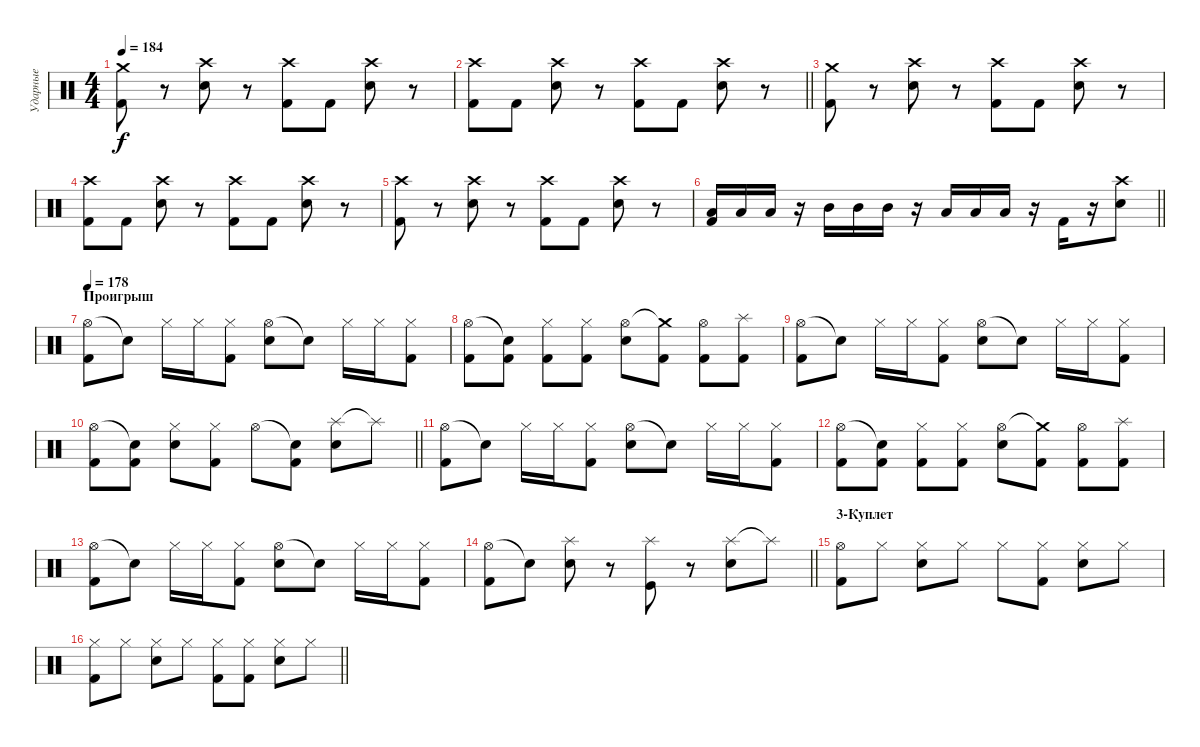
\track ("Ударные" "Ударные") {instrument percussion}
\staff {score}
\articulation defaults
\ts (4 4)
\tempo 184
\clef neutral
\ks c
("Crash medium (hit)" "Kick (hit) 2").8{dy f} r.8 ("Crash high (hit)" "Snare (hit) 2").8 r.8 ("Crash high (hit)" "Kick (hit) 2").8 "Kick (hit) 2".8 ("Crash high (hit)" "Snare (hit) 2").8 r.8 |
\barLineRight lightlight
("Crash high (hit)" "Kick (hit) 2").8 "Kick (hit) 2".8 ("Crash high (hit)" "Snare (hit) 2").8 r.8 ("Crash high (hit)" "Kick (hit) 2").8 "Kick (hit) 2".8 ("Crash high (hit)" "Snare (hit) 2").8 r.8 |
("Crash medium (hit)" "Kick (hit) 2").8 r.8 ("Crash high (hit)" "Snare (hit) 2").8 r.8 ("Crash high (hit)" "Kick (hit) 2").8 "Kick (hit) 2".8 ("Crash high (hit)" "Snare (hit) 2").8 r.8 |
("Crash high (hit)" "Kick (hit) 2").8 "Kick (hit) 2".8 ("Crash high (hit)" "Snare (hit) 2").8 r.8 ("Crash high (hit)" "Kick (hit) 2").8 "Kick (hit) 2".8 ("Crash high (hit)" "Snare (hit) 2").8 r.8 |
("Crash high (hit)" "Kick (hit) 2").8 r.8 ("Crash high (hit)" "Snare (hit) 2").8 r.8 ("Crash high (hit)" "Kick (hit) 2").8 "Kick (hit) 2".8 ("Crash high (hit)" "Snare (hit) 2").8 r.8 |
\barLineRight lightlight
("Low Floor Tom (hit)" "Kick (hit) 2").16 "Low Floor Tom (hit)".16 "Low Floor Tom (hit)".16 r.16 "Mid Tom (hit)".16 "Mid Tom (hit)".16 "Mid Tom (hit)".16 r.16 "Low Tom (hit)".16 "Low Tom (hit)".16 "Low Tom (hit)".16 r.16 "Kick (hit) 2".16 r.16 ("Crash high (hit)" "Snare (hit) 2").8 |
\section ("" "Проигрыш")
\tempo 178
("Hi-Hat (open)" "Kick (hit) 2").8 "Snare (hit)"{t}.8 "Hi-Hat (closed)".16 "Hi-Hat (closed)".16 ("Hi-Hat (closed)" "Kick (hit) 2").8 ("Hi-Hat (open)" "Snare (hit) 2").8 "Snare (hit)"{t}.8 "Hi-Hat (closed)".16 "Hi-Hat (closed)".16 ("Hi-Hat (closed)" "Kick (hit) 2").8 |
("Hi-Hat (open)" "Kick (hit) 2").8 ("Snare (hit)"{t} "Kick (hit) 2").8 ("Hi-Hat (closed)" "Kick (hit) 2").8 ("Hi-Hat (closed)" "Kick (hit) 2").8 ("Hi-Hat (open)" "Snare (hit) 2").8 ("Crash medium (hit)"{t} "Kick (hit) 2").8 ("Hi-Hat (open)" "Kick (hit) 2").8 ("Splash (hit)" "Kick (hit) 2").8 |
("Hi-Hat (open)" "Kick (hit) 2").8 "Snare (hit)"{t}.8 "Hi-Hat (closed)".16 "Hi-Hat (closed)".16 ("Hi-Hat (closed)" "Kick (hit) 2").8 ("Hi-Hat (open)" "Snare (hit) 2").8 "Snare (hit)"{t}.8 "Hi-Hat (closed)".16 "Hi-Hat (closed)".16 ("Hi-Hat (closed)" "Kick (hit) 2").8 |
\barLineRight lightlight
("Hi-Hat (open)" "Kick (hit) 2").8 ("Snare (hit)"{t} "Kick (hit) 2").8 ("Hi-Hat (closed)" "Snare (hit) 2").8 ("Hi-Hat (closed)" "Kick (hit) 2").8 "Hi-Hat (open)".8 ("Snare (hit)"{t} "Kick (hit) 2").8 ("Splash (hit)" "Snare (hit) 2").8 "Splash (hit)"{t}.8 |
("Hi-Hat (open)" "Kick (hit) 2").8 "Snare (hit)"{t}.8 "Hi-Hat (closed)".16 "Hi-Hat (closed)".16 ("Hi-Hat (closed)" "Kick (hit) 2").8 ("Hi-Hat (open)" "Snare (hit) 2").8 "Snare (hit)"{t}.8 "Hi-Hat (closed)".16 "Hi-Hat (closed)".16 ("Hi-Hat (closed)" "Kick (hit) 2").8 |
("Hi-Hat (open)" "Kick (hit) 2").8 ("Snare (hit)"{t} "Kick (hit) 2").8 ("Hi-Hat (closed)" "Kick (hit) 2").8 ("Hi-Hat (closed)" "Kick (hit) 2").8 ("Hi-Hat (open)" "Snare (hit) 2").8 ("Crash medium (hit)"{t} "Kick (hit) 2").8 ("Hi-Hat (open)" "Kick (hit) 2").8 ("Splash (hit)" "Kick (hit) 2").8 |
("Hi-Hat (open)" "Kick (hit) 2").8 "Snare (hit)"{t}.8 "Hi-Hat (closed)".16 "Hi-Hat (closed)".16 ("Hi-Hat (closed)" "Kick (hit) 2").8 ("Hi-Hat (open)" "Snare (hit) 2").8 "Snare (hit)"{t}.8 "Hi-Hat (closed)".16 "Hi-Hat (closed)".16 ("Hi-Hat (closed)" "Kick (hit) 2").8 |
\barLineRight lightlight
("Hi-Hat (open)" "Kick (hit) 2").8 "Snare (hit)"{t}.8 ("Splash (hit)" "Snare (hit) 2").8 r.8 ("Splash (hit)" "Kick (hit)").8 r.8 ("Splash (hit)" "Snare (hit) 2").8 "Splash (hit)"{t}.8 |
\section ("" "3-Куплет")
("Hi-Hat (open)" "Kick (hit) 2").8 "Hi-Hat (closed)".8 ("Hi-Hat (closed)" "Snare (hit) 2").8 "Hi-Hat (closed)".8 "Hi-Hat (closed)".8 ("Hi-Hat (closed)" "Kick (hit) 2").8 ("Hi-Hat (closed)" "Snare (hit) 2").8 "Hi-Hat (closed)".8 |
\barLineRight lightlight
("Hi-Hat (closed)" "Kick (hit) 2").8 "Hi-Hat (closed)".8 ("Hi-Hat (closed)" "Snare (hit) 2").8 "Hi-Hat (closed)".8 ("Hi-Hat (closed)" "Kick (hit) 2").8 ("Hi-Hat (closed)" "Kick (hit) 2").8 ("Hi-Hat (closed)" "Snare (hit) 2").8 "Hi-Hat (closed)".8
